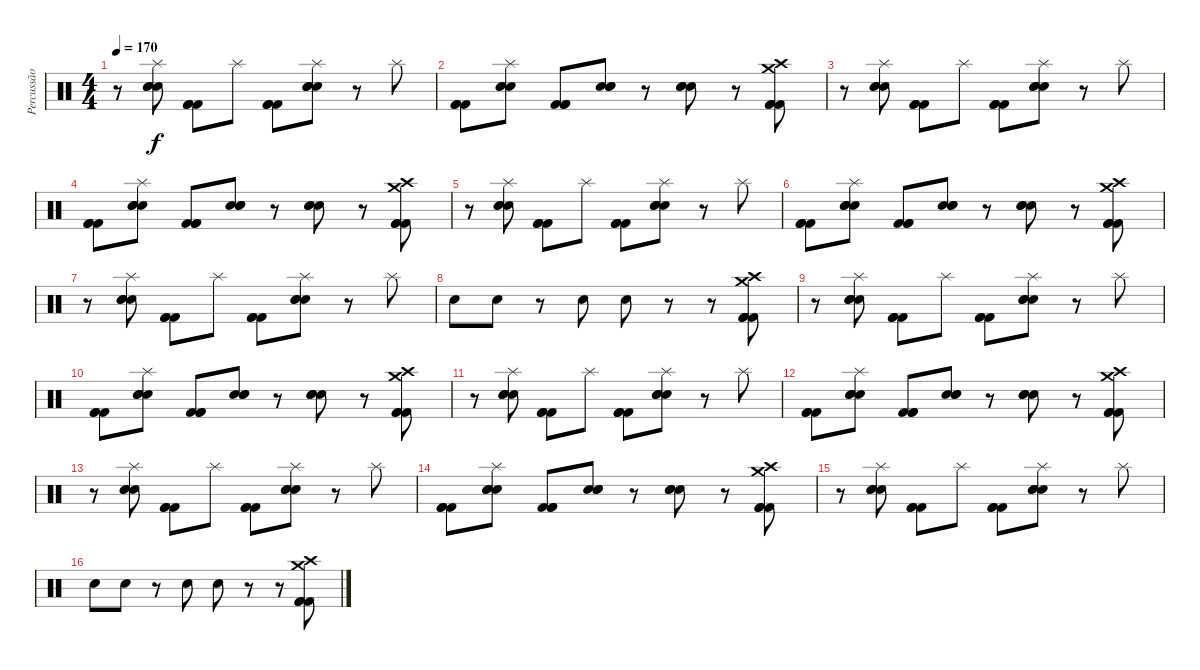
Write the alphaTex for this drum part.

\track ("Percussão" "Percussão") {instrument percussion}
\staff {score}
\articulation defaults
\ts (4 4)
\tempo 170
\clef neutral
\ks c
r.8{dy f} ("Splash (hit)" "Electric Snare (hit)" "Electric Snare (hit)" "Electric Snare (hit)").8 ("Kick (hit) 2" "Kick (hit) 2" "Kick (hit) 2").8 "Splash (hit)".8 ("Kick (hit) 2" "Kick (hit) 2" "Kick (hit) 2").8 ("Splash (hit)" "Electric Snare (hit)" "Electric Snare (hit)" "Electric Snare (hit)").8 r.8 "Splash (hit)".8 |
("Kick (hit) 2" "Kick (hit) 2" "Kick (hit) 2").8 ("Splash (hit)" "Electric Snare (hit)" "Electric Snare (hit)" "Electric Snare (hit)").8 ("Kick (hit) 2" "Kick (hit) 2" "Kick (hit) 2").8 ("Electric Snare (hit)" "Electric Snare (hit)" "Electric Snare (hit)").8 r.8 ("Electric Snare (hit)" "Electric Snare (hit)" "Electric Snare (hit)").8 r.8 ("Crash high (hit)" "Crash medium (hit)" "Kick (hit) 2" "Kick (hit) 2" "Kick (hit) 2").8 |
r.8 ("Splash (hit)" "Electric Snare (hit)" "Electric Snare (hit)" "Electric Snare (hit)").8 ("Kick (hit) 2" "Kick (hit) 2" "Kick (hit) 2").8 "Splash (hit)".8 ("Kick (hit) 2" "Kick (hit) 2" "Kick (hit) 2").8 ("Splash (hit)" "Electric Snare (hit)" "Electric Snare (hit)" "Electric Snare (hit)").8 r.8 "Splash (hit)".8 |
("Kick (hit) 2" "Kick (hit) 2" "Kick (hit) 2").8 ("Splash (hit)" "Electric Snare (hit)" "Electric Snare (hit)" "Electric Snare (hit)").8 ("Kick (hit) 2" "Kick (hit) 2" "Kick (hit) 2").8 ("Electric Snare (hit)" "Electric Snare (hit)" "Electric Snare (hit)").8 r.8 ("Electric Snare (hit)" "Electric Snare (hit)" "Electric Snare (hit)").8 r.8 ("Crash high (hit)" "Crash medium (hit)" "Kick (hit) 2" "Kick (hit) 2" "Kick (hit) 2").8 |
r.8 ("Splash (hit)" "Electric Snare (hit)" "Electric Snare (hit)" "Electric Snare (hit)").8 ("Kick (hit) 2" "Kick (hit) 2" "Kick (hit) 2").8 "Splash (hit)".8 ("Kick (hit) 2" "Kick (hit) 2" "Kick (hit) 2").8 ("Splash (hit)" "Electric Snare (hit)" "Electric Snare (hit)" "Electric Snare (hit)").8 r.8 "Splash (hit)".8 |
("Kick (hit) 2" "Kick (hit) 2" "Kick (hit) 2").8 ("Splash (hit)" "Electric Snare (hit)" "Electric Snare (hit)" "Electric Snare (hit)").8 ("Kick (hit) 2" "Kick (hit) 2" "Kick (hit) 2").8 ("Electric Snare (hit)" "Electric Snare (hit)" "Electric Snare (hit)").8 r.8 ("Electric Snare (hit)" "Electric Snare (hit)" "Electric Snare (hit)").8 r.8 ("Crash high (hit)" "Crash medium (hit)" "Kick (hit) 2" "Kick (hit) 2" "Kick (hit) 2").8 |
r.8 ("Splash (hit)" "Electric Snare (hit)" "Electric Snare (hit)" "Electric Snare (hit)").8 ("Kick (hit) 2" "Kick (hit) 2" "Kick (hit) 2").8 "Splash (hit)".8 ("Kick (hit) 2" "Kick (hit) 2" "Kick (hit) 2").8 ("Splash (hit)" "Electric Snare (hit)" "Electric Snare (hit)" "Electric Snare (hit)").8 r.8 "Splash (hit)".8 |
"Electric Snare (hit)".8 "Electric Snare (hit)".8 r.8 "Electric Snare (hit)".8 "Electric Snare (hit)".8 r.8 r.8 ("Crash high (hit)" "Crash medium (hit)" "Kick (hit) 2" "Kick (hit) 2" "Kick (hit) 2").8 |
r.8 ("Splash (hit)" "Electric Snare (hit)" "Electric Snare (hit)" "Electric Snare (hit)").8 ("Kick (hit) 2" "Kick (hit) 2" "Kick (hit) 2").8 "Splash (hit)".8 ("Kick (hit) 2" "Kick (hit) 2" "Kick (hit) 2").8 ("Splash (hit)" "Electric Snare (hit)" "Electric Snare (hit)" "Electric Snare (hit)").8 r.8 "Splash (hit)".8 |
("Kick (hit) 2" "Kick (hit) 2" "Kick (hit) 2").8 ("Splash (hit)" "Electric Snare (hit)" "Electric Snare (hit)" "Electric Snare (hit)").8 ("Kick (hit) 2" "Kick (hit) 2" "Kick (hit) 2").8 ("Electric Snare (hit)" "Electric Snare (hit)" "Electric Snare (hit)").8 r.8 ("Electric Snare (hit)" "Electric Snare (hit)" "Electric Snare (hit)").8 r.8 ("Crash high (hit)" "Crash medium (hit)" "Kick (hit) 2" "Kick (hit) 2" "Kick (hit) 2").8 |
r.8 ("Splash (hit)" "Electric Snare (hit)" "Electric Snare (hit)" "Electric Snare (hit)").8 ("Kick (hit) 2" "Kick (hit) 2" "Kick (hit) 2").8 "Splash (hit)".8 ("Kick (hit) 2" "Kick (hit) 2" "Kick (hit) 2").8 ("Splash (hit)" "Electric Snare (hit)" "Electric Snare (hit)" "Electric Snare (hit)").8 r.8 "Splash (hit)".8 |
("Kick (hit) 2" "Kick (hit) 2" "Kick (hit) 2").8 ("Splash (hit)" "Electric Snare (hit)" "Electric Snare (hit)" "Electric Snare (hit)").8 ("Kick (hit) 2" "Kick (hit) 2" "Kick (hit) 2").8 ("Electric Snare (hit)" "Electric Snare (hit)" "Electric Snare (hit)").8 r.8 ("Electric Snare (hit)" "Electric Snare (hit)" "Electric Snare (hit)").8 r.8 ("Crash high (hit)" "Crash medium (hit)" "Kick (hit) 2" "Kick (hit) 2" "Kick (hit) 2").8 |
r.8 ("Splash (hit)" "Electric Snare (hit)" "Electric Snare (hit)" "Electric Snare (hit)").8 ("Kick (hit) 2" "Kick (hit) 2" "Kick (hit) 2").8 "Splash (hit)".8 ("Kick (hit) 2" "Kick (hit) 2" "Kick (hit) 2").8 ("Splash (hit)" "Electric Snare (hit)" "Electric Snare (hit)" "Electric Snare (hit)").8 r.8 "Splash (hit)".8 |
("Kick (hit) 2" "Kick (hit) 2" "Kick (hit) 2").8 ("Splash (hit)" "Electric Snare (hit)" "Electric Snare (hit)" "Electric Snare (hit)").8 ("Kick (hit) 2" "Kick (hit) 2" "Kick (hit) 2").8 ("Electric Snare (hit)" "Electric Snare (hit)" "Electric Snare (hit)").8 r.8 ("Electric Snare (hit)" "Electric Snare (hit)" "Electric Snare (hit)").8 r.8 ("Crash high (hit)" "Crash medium (hit)" "Kick (hit) 2" "Kick (hit) 2" "Kick (hit) 2").8 |
r.8 ("Splash (hit)" "Electric Snare (hit)" "Electric Snare (hit)" "Electric Snare (hit)").8 ("Kick (hit) 2" "Kick (hit) 2" "Kick (hit) 2").8 "Splash (hit)".8 ("Kick (hit) 2" "Kick (hit) 2" "Kick (hit) 2").8 ("Splash (hit)" "Electric Snare (hit)" "Electric Snare (hit)" "Electric Snare (hit)").8 r.8 "Splash (hit)".8 |
"Electric Snare (hit)".8 "Electric Snare (hit)".8 r.8 "Electric Snare (hit)".8 "Electric Snare (hit)".8 r.8 r.8 ("Crash high (hit)" "Crash medium (hit)" "Kick (hit) 2" "Kick (hit) 2" "Kick (hit) 2").8
